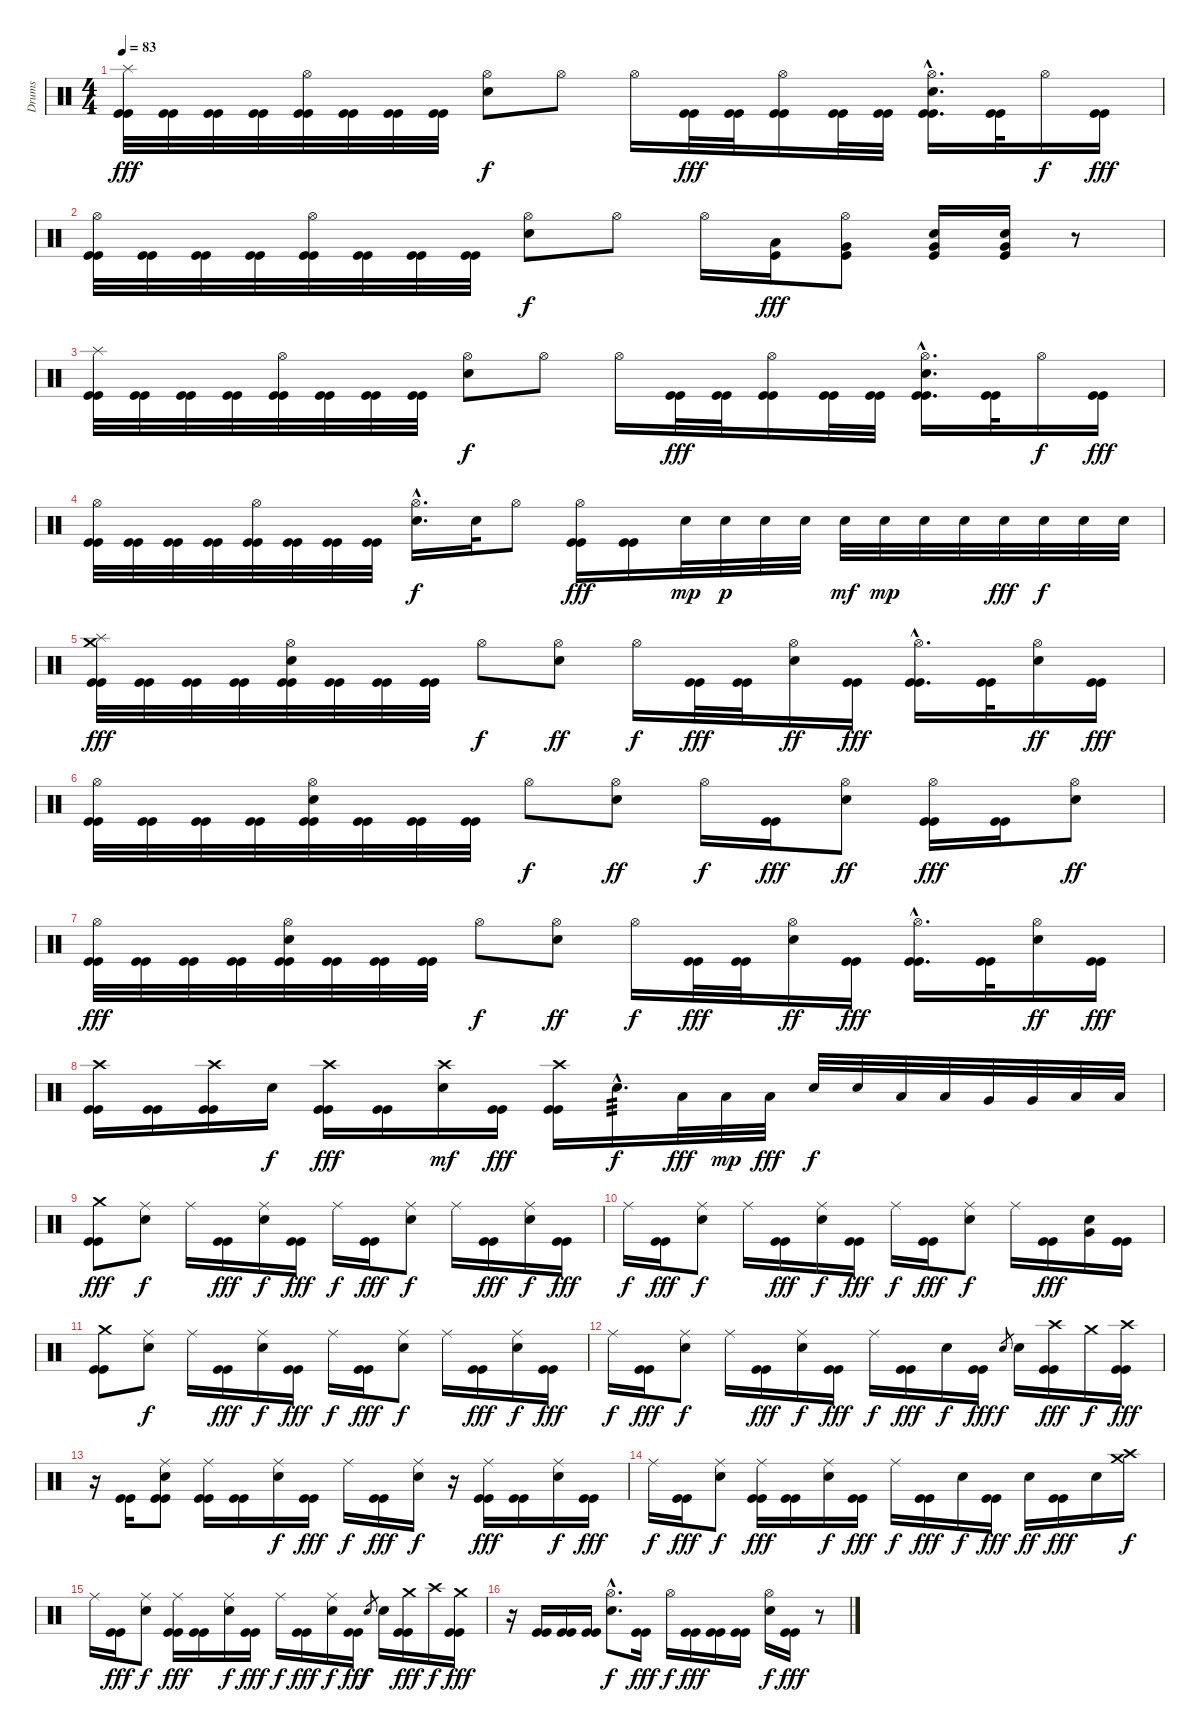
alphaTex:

\track ("Drums" "Drums") {instrument percussion}
\staff {score}
\articulation defaults
\ts (4 4)
\tempo 83
\clef neutral
\ks c
("Splash (hit)" "Kick (hit)" "Kick (hit)").32{dy fff} ("Kick (hit)" "Kick (hit)").32 ("Kick (hit)" "Kick (hit)").32 ("Kick (hit)" "Kick (hit)").32 ("Hi-Hat (open)" "Kick (hit)" "Kick (hit)").32 ("Kick (hit)" "Kick (hit)").32 ("Kick (hit)" "Kick (hit)").32 ("Kick (hit)" "Kick (hit)").32 ("Hi-Hat (open)" "Snare (hit) 2").8{dy f} "Hi-Hat (open)".8 "Hi-Hat (open)".16 ("Kick (hit)" "Kick (hit)").32{dy fff} ("Kick (hit)" "Kick (hit)").32 ("Hi-Hat (open)" "Kick (hit)" "Kick (hit)").16 ("Kick (hit)" "Kick (hit)").32 ("Kick (hit)" "Kick (hit)").32 ("Hi-Hat (open)"{hac} "Snare (hit) 2"{hac} "Kick (hit)"{hac} "Kick (hit)"{hac}).16{d} ("Kick (hit)" "Kick (hit)").32 "Hi-Hat (open)".16{dy f} ("Kick (hit)" "Kick (hit)").16{dy fff} |
("Hi-Hat (open)" "Kick (hit)" "Kick (hit)").32 ("Kick (hit)" "Kick (hit)").32 ("Kick (hit)" "Kick (hit)").32 ("Kick (hit)" "Kick (hit)").32 ("Hi-Hat (open)" "Kick (hit)" "Kick (hit)").32 ("Kick (hit)" "Kick (hit)").32 ("Kick (hit)" "Kick (hit)").32 ("Kick (hit)" "Kick (hit)").32 ("Hi-Hat (open)" "Snare (hit) 2").8{dy f} "Hi-Hat (open)".8 "Hi-Hat (open)".16 ("Low Tom (hit)" "Kick (hit)").16{dy fff} ("Hi-Hat (open)" "Very Low Tom (hit)" "Kick (hit)").8 ("Very Low Tom (hit)" "Snare (hit) 2" "Kick (hit)").16 ("Very Low Tom (hit)" "Snare (hit) 2" "Kick (hit)").16 r.8 |
("Splash (hit)" "Kick (hit)" "Kick (hit)").32 ("Kick (hit)" "Kick (hit)").32 ("Kick (hit)" "Kick (hit)").32 ("Kick (hit)" "Kick (hit)").32 ("Hi-Hat (open)" "Kick (hit)" "Kick (hit)").32 ("Kick (hit)" "Kick (hit)").32 ("Kick (hit)" "Kick (hit)").32 ("Kick (hit)" "Kick (hit)").32 ("Hi-Hat (open)" "Snare (hit) 2").8{dy f} "Hi-Hat (open)".8 "Hi-Hat (open)".16 ("Kick (hit)" "Kick (hit)").32{dy fff} ("Kick (hit)" "Kick (hit)").32 ("Hi-Hat (open)" "Kick (hit)" "Kick (hit)").16 ("Kick (hit)" "Kick (hit)").32 ("Kick (hit)" "Kick (hit)").32 ("Hi-Hat (open)"{hac} "Snare (hit) 2"{hac} "Kick (hit)"{hac} "Kick (hit)"{hac}).16{d} ("Kick (hit)" "Kick (hit)").32 "Hi-Hat (open)".16{dy f} ("Kick (hit)" "Kick (hit)").16{dy fff} |
("Hi-Hat (open)" "Kick (hit)" "Kick (hit)").32 ("Kick (hit)" "Kick (hit)").32 ("Kick (hit)" "Kick (hit)").32 ("Kick (hit)" "Kick (hit)").32 ("Hi-Hat (open)" "Kick (hit)" "Kick (hit)").32 ("Kick (hit)" "Kick (hit)").32 ("Kick (hit)" "Kick (hit)").32 ("Kick (hit)" "Kick (hit)").32 ("Hi-Hat (open)"{hac} "Snare (hit) 2"{hac}).16{d dy f} "Snare (hit) 2".32 "Hi-Hat (open)".8 ("Hi-Hat (open)" "Kick (hit)" "Kick (hit)").16{dy fff} ("Kick (hit)" "Kick (hit)").16 "Snare (hit) 2".32{dy mp} "Snare (hit) 2".32{dy p} "Snare (hit) 2".32 "Snare (hit) 2".32 "Snare (hit) 2".32{dy mf} "Snare (hit) 2".32{dy mp} "Snare (hit) 2".32 "Snare (hit) 2".32 "Snare (hit) 2".32{dy fff} "Snare (hit) 2".32{dy f} "Snare (hit) 2".32 "Snare (hit) 2".32 |
("Splash (hit)" "Crash medium (hit)" "Kick (hit)" "Kick (hit)").32{dy fff} ("Kick (hit)" "Kick (hit)").32 ("Kick (hit)" "Kick (hit)").32 ("Kick (hit)" "Kick (hit)").32 ("Hi-Hat (open)" "Snare (hit) 2" "Kick (hit)" "Kick (hit)").32 ("Kick (hit)" "Kick (hit)").32 ("Kick (hit)" "Kick (hit)").32 ("Kick (hit)" "Kick (hit)").32 "Hi-Hat (open)".8{dy f} ("Hi-Hat (open)" "Snare (hit) 2").8{dy ff} "Hi-Hat (open)".16{dy f} ("Kick (hit)" "Kick (hit)").32{dy fff} ("Kick (hit)" "Kick (hit)").32 ("Hi-Hat (open)" "Snare (hit) 2").16{dy ff} ("Kick (hit)" "Kick (hit)").16{dy fff} ("Hi-Hat (open)"{hac} "Kick (hit)"{hac} "Kick (hit)"{hac}).16{d} ("Kick (hit)" "Kick (hit)").32 ("Hi-Hat (open)" "Snare (hit) 2").16{dy ff} ("Kick (hit)" "Kick (hit)").16{dy fff} |
("Hi-Hat (open)" "Kick (hit)" "Kick (hit)").32 ("Kick (hit)" "Kick (hit)").32 ("Kick (hit)" "Kick (hit)").32 ("Kick (hit)" "Kick (hit)").32 ("Hi-Hat (open)" "Snare (hit) 2" "Kick (hit)" "Kick (hit)").32 ("Kick (hit)" "Kick (hit)").32 ("Kick (hit)" "Kick (hit)").32 ("Kick (hit)" "Kick (hit)").32 "Hi-Hat (open)".8{dy f} ("Hi-Hat (open)" "Snare (hit) 2").8{dy ff} "Hi-Hat (open)".16{dy f} ("Kick (hit)" "Kick (hit)").16{dy fff} ("Hi-Hat (open)" "Snare (hit) 2").8{dy ff} ("Hi-Hat (open)" "Kick (hit)" "Kick (hit)").16{dy fff} ("Kick (hit)" "Kick (hit)").16 ("Hi-Hat (open)" "Snare (hit) 2").8{dy ff} |
("Hi-Hat (open)" "Kick (hit)" "Kick (hit)").32{dy fff} ("Kick (hit)" "Kick (hit)").32 ("Kick (hit)" "Kick (hit)").32 ("Kick (hit)" "Kick (hit)").32 ("Hi-Hat (open)" "Snare (hit) 2" "Kick (hit)" "Kick (hit)").32 ("Kick (hit)" "Kick (hit)").32 ("Kick (hit)" "Kick (hit)").32 ("Kick (hit)" "Kick (hit)").32 "Hi-Hat (open)".8{dy f} ("Hi-Hat (open)" "Snare (hit) 2").8{dy ff} "Hi-Hat (open)".16{dy f} ("Kick (hit)" "Kick (hit)").32{dy fff} ("Kick (hit)" "Kick (hit)").32 ("Hi-Hat (open)" "Snare (hit) 2").16{dy ff} ("Kick (hit)" "Kick (hit)").16{dy fff} ("Hi-Hat (open)"{hac} "Kick (hit)"{hac} "Kick (hit)"{hac}).16{d} ("Kick (hit)" "Kick (hit)").32 ("Hi-Hat (open)" "Snare (hit) 2").16{dy ff} ("Kick (hit)" "Kick (hit)").16{dy fff} |
("Crash high (hit)" "Kick (hit)" "Kick (hit)").16 ("Kick (hit)" "Kick (hit)").16 ("Crash high (hit)" "Kick (hit)" "Kick (hit)").16 "Snare (hit) 2".16{dy f} ("Crash high (hit)" "Kick (hit)" "Kick (hit)").16{dy fff} ("Kick (hit)" "Kick (hit)").16 ("Crash high (hit)" "Snare (hit) 2").16{dy mf} ("Kick (hit)" "Kick (hit)").16{dy fff} ("Crash high (hit)" "Kick (hit)" "Kick (hit)").16 "Snare (hit) 2"{hac}.16{d tp 3 dy f} "Low Tom (hit)".32{dy fff} "Low Tom (hit)".32{dy mp} "Low Tom (hit)".32{dy fff} "Snare (hit) 2".32{dy f} "Snare (hit) 2".32 "Low Tom (hit)".32 "Low Tom (hit)".32 "Very Low Tom (hit)".32 "Very Low Tom (hit)".32 "Low Floor Tom (hit)".32 "Low Floor Tom (hit)".32 |
("Crash medium (hit)" "Kick (hit)" "Kick (hit)").8{dy fff} ("Ride (middle)" "Snare (hit) 2").8{dy f} "Ride (middle)".16 ("Kick (hit)" "Kick (hit)").16{dy fff} ("Ride (middle)" "Snare (hit) 2").16{dy f} ("Kick (hit)" "Kick (hit)").16{dy fff} "Ride (middle)".16{dy f} ("Kick (hit)" "Kick (hit)").16{dy fff} ("Ride (middle)" "Snare (hit) 2").8{dy f} "Ride (middle)".16 ("Kick (hit)" "Kick (hit)").16{dy fff} ("Ride (middle)" "Snare (hit) 2").16{dy f} ("Kick (hit)" "Kick (hit)").16{dy fff} |
"Ride (middle)".16{dy f} ("Kick (hit)" "Kick (hit)").16{dy fff} ("Ride (middle)" "Snare (hit) 2").8{dy f} "Ride (middle)".16 ("Kick (hit)" "Kick (hit)").16{dy fff} ("Ride (middle)" "Snare (hit) 2").16{dy f} ("Kick (hit)" "Kick (hit)").16{dy fff} "Ride (middle)".16{dy f} ("Kick (hit)" "Kick (hit)").16{dy fff} ("Ride (middle)" "Snare (hit) 2").8{dy f} "Ride (middle)".16 ("Kick (hit)" "Kick (hit)").16{dy fff} ("Snare (hit) 2" "Very Low Tom (hit)").16 ("Kick (hit)" "Kick (hit)").16 |
("Crash medium (hit)" "Kick (hit)" "Kick (hit)").8 ("Ride (middle)" "Snare (hit) 2").8{dy f} "Ride (middle)".16 ("Kick (hit)" "Kick (hit)").16{dy fff} ("Ride (middle)" "Snare (hit) 2").16{dy f} ("Kick (hit)" "Kick (hit)").16{dy fff} "Ride (middle)".16{dy f} ("Kick (hit)" "Kick (hit)").16{dy fff} ("Ride (middle)" "Snare (hit) 2").8{dy f} "Ride (middle)".16 ("Kick (hit)" "Kick (hit)").16{dy fff} ("Ride (middle)" "Snare (hit) 2").16{dy f} ("Kick (hit)" "Kick (hit)").16{dy fff} |
"Ride (middle)".16{dy f} ("Kick (hit)" "Kick (hit)").16{dy fff} ("Ride (middle)" "Snare (hit) 2").8{dy f} "Ride (middle)".16 ("Kick (hit)" "Kick (hit)").16{dy fff} ("Ride (middle)" "Snare (hit) 2").16{dy f} ("Kick (hit)" "Kick (hit)").16{dy fff} "Ride (middle)".16{dy f} ("Kick (hit)" "Kick (hit)").16{dy fff} "Snare (hit) 2".16{dy f} ("Kick (hit)" "Kick (hit)").16{dy fff} "Snare (hit) 2".8{gr dy f} "Snare (hit) 2".16 ("Crash high (hit)" "Kick (hit)" "Kick (hit)").16{dy fff} "Crash medium (hit)".16{dy f} ("Crash high (hit)" "Kick (hit)" "Kick (hit)").16{dy fff} |
r.16 ("Kick (hit)" "Kick (hit)").16 ("Ride (middle)" "Snare (hit) 2" "Kick (hit)" "Kick (hit)").8 ("Ride (middle)" "Kick (hit)" "Kick (hit)").16 ("Kick (hit)" "Kick (hit)").16 ("Ride (middle)" "Snare (hit) 2").16{dy f} ("Kick (hit)" "Kick (hit)").16{dy fff} "Ride (middle)".16{dy f} ("Kick (hit)" "Kick (hit)").16{dy fff} ("Ride (middle)" "Snare (hit) 2").16{dy f} r.16 ("Ride (middle)" "Kick (hit)" "Kick (hit)").16{dy fff} ("Kick (hit)" "Kick (hit)").16 ("Ride (middle)" "Snare (hit) 2").16{dy f} ("Kick (hit)" "Kick (hit)").16{dy fff} |
"Ride (middle)".16{dy f} ("Kick (hit)" "Kick (hit)").16{dy fff} ("Ride (middle)" "Snare (hit) 2").8{dy f} ("Ride (middle)" "Kick (hit)" "Kick (hit)").16{dy fff} ("Kick (hit)" "Kick (hit)").16 ("Ride (middle)" "Snare (hit) 2").16{dy f} ("Kick (hit)" "Kick (hit)").16{dy fff} "Ride (middle)".16{dy f} ("Kick (hit)" "Kick (hit)").16{dy fff} "Snare (hit) 2".16{dy f} ("Kick (hit)" "Kick (hit)").16{dy fff} "Snare (hit) 2".16{dy ff} ("Kick (hit)" "Kick (hit)").16{dy fff} "Snare (hit) 2".16 ("Crash medium (hit)" "Crash high (hit)").16{dy f} |
"Ride (middle)".16 ("Kick (hit)" "Kick (hit)").16{dy fff} ("Ride (middle)" "Snare (hit) 2").8{dy f} ("Ride (middle)" "Kick (hit)" "Kick (hit)").16{dy fff} ("Kick (hit)" "Kick (hit)").16 ("Ride (middle)" "Snare (hit) 2").16{dy f} ("Kick (hit)" "Kick (hit)").16{dy fff} "Ride (middle)".16{dy f} ("Kick (hit)" "Kick (hit)").16{dy fff} ("Ride (middle)" "Snare (hit) 2").16{dy f} ("Kick (hit)" "Kick (hit)").16{dy fff} "Snare (hit) 2".8{gr dy f} "Snare (hit) 2".16 ("Crash medium (hit)" "Kick (hit)" "Kick (hit)").16{dy fff} "Crash high (hit)".16{dy f} ("Crash medium (hit)" "Kick (hit)" "Kick (hit)").16{dy fff} |
r.16 ("Kick (hit)" "Kick (hit)").16 ("Kick (hit)" "Kick (hit)").16 ("Kick (hit)" "Kick (hit)").16 ("Hi-Hat (open)"{hac} "Snare (hit) 2"{hac}).8{d dy f} ("Kick (hit)" "Kick (hit)").16{dy fff} "Hi-Hat (open)".16{dy f} ("Kick (hit)" "Kick (hit)").16{dy fff} ("Kick (hit)" "Kick (hit)").16 ("Kick (hit)" "Kick (hit)").16 ("Hi-Hat (open)" "Snare (hit) 2").16{dy f} ("Kick (hit)" "Kick (hit)").16{dy fff} r.8
